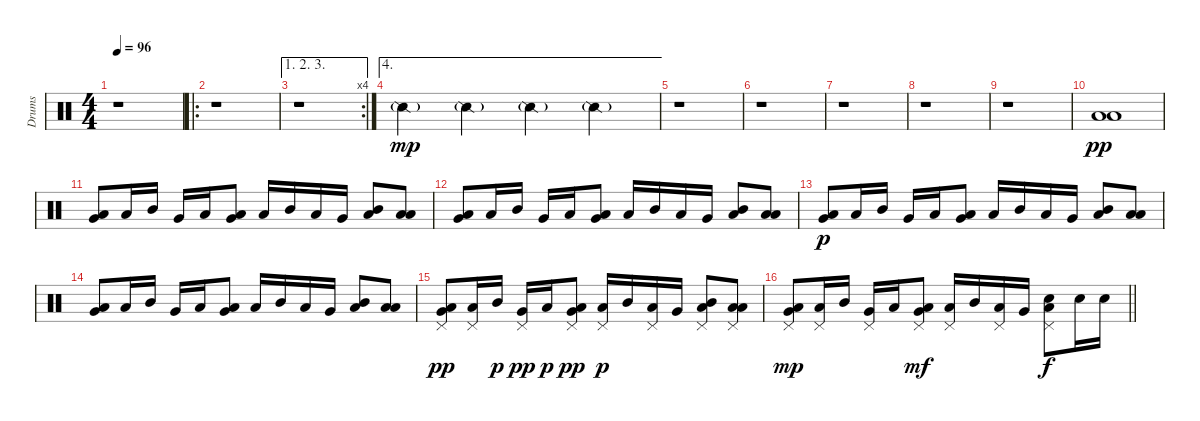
\track ("Drums" "Drums") {instrument percussion}
\staff {score}
\articulation defaults
\ts (4 4)
\tempo 96
\clef neutral
\ks c
r.1{dy mp} |
\ro
r.1 |
\ae (1 2 3)
\rc 4
r.1 |
\ae 4 "Snare (side stick) 2"{g}.4 "Snare (side stick) 2"{g}.4 "Snare (side stick) 2"{g}.4 "Snare (side stick) 2"{g}.4
|
r.1 |
r.1 |
r.1 |
r.1 |
r.1 |
("Low Tom (hit)" "Low Floor Tom (hit)").1{dy pp} |
("Low Tom (hit)" "Very Low Tom (hit)").8 "Low Floor Tom (hit)".16 "Mid Tom (hit)".16 "Very Low Tom (hit)".16 "Low Floor Tom (hit)".16 ("Very Low Tom (hit)" "Low Floor Tom (hit)").8 "Low Floor Tom (hit)".16 "Mid Tom (hit)".16 "Low Tom (hit)".16 "Very Low Tom (hit)".16 ("Mid Tom (hit)" "Low Floor Tom (hit)").8 ("Low Floor Tom (hit)" "Low Tom (hit)").8 |
("Low Tom (hit)" "Very Low Tom (hit)").8 "Low Floor Tom (hit)".16 "Mid Tom (hit)".16 "Very Low Tom (hit)".16 "Low Floor Tom (hit)".16 ("Very Low Tom (hit)" "Low Floor Tom (hit)").8 "Low Floor Tom (hit)".16 "Mid Tom (hit)".16 "Low Tom (hit)".16 "Very Low Tom (hit)".16 ("Mid Tom (hit)" "Low Floor Tom (hit)").8 ("Low Floor Tom (hit)" "Low Tom (hit)").8 |
("Low Tom (hit)" "Very Low Tom (hit)").8{dy p} "Low Floor Tom (hit)".16 "Mid Tom (hit)".16 "Very Low Tom (hit)".16 "Low Floor Tom (hit)".16 ("Very Low Tom (hit)" "Low Floor Tom (hit)").8 "Low Floor Tom (hit)".16 "Mid Tom (hit)".16 "Low Tom (hit)".16 "Very Low Tom (hit)".16 ("Mid Tom (hit)" "Low Floor Tom (hit)").8 ("Low Floor Tom (hit)" "Low Tom (hit)").8 |
("Low Tom (hit)" "Very Low Tom (hit)").8 "Low Floor Tom (hit)".16 "Mid Tom (hit)".16 "Very Low Tom (hit)".16 "Low Floor Tom (hit)".16 ("Very Low Tom (hit)" "Low Floor Tom (hit)").8 "Low Floor Tom (hit)".16 "Mid Tom (hit)".16 "Low Tom (hit)".16 "Very Low Tom (hit)".16 ("Mid Tom (hit)" "Low Floor Tom (hit)").8 ("Low Floor Tom (hit)" "Low Tom (hit)").8 |
("Low Tom (hit)" "Very Low Tom (hit)" "Pedal Hi-Hat (hit)").8{dy pp} ("Low Floor Tom (hit)" "Pedal Hi-Hat (hit)").16 "Mid Tom (hit)".16{dy p} ("Very Low Tom (hit)" "Pedal Hi-Hat (hit)").16{dy pp} "Low Floor Tom (hit)".16{dy p} ("Very Low Tom (hit)" "Low Floor Tom (hit)" "Pedal Hi-Hat (hit)").8{dy pp} ("Low Floor Tom (hit)" "Pedal Hi-Hat (hit)").16{dy p} "Mid Tom (hit)".16 ("Low Tom (hit)" "Pedal Hi-Hat (hit)").16 "Very Low Tom (hit)".16 ("Mid Tom (hit)" "Low Floor Tom (hit)" "Pedal Hi-Hat (hit)").8 ("Low Floor Tom (hit)" "Low Tom (hit)" "Pedal Hi-Hat (hit)").8 |
\barLineRight lightlight
("Low Tom (hit)" "Very Low Tom (hit)" "Pedal Hi-Hat (hit)").8{dy mp} ("Low Floor Tom (hit)" "Pedal Hi-Hat (hit)").16 "Mid Tom (hit)".16 ("Very Low Tom (hit)" "Pedal Hi-Hat (hit)").16 "Low Floor Tom (hit)".16 ("Very Low Tom (hit)" "Low Floor Tom (hit)" "Pedal Hi-Hat (hit)").8{dy mf} ("Low Floor Tom (hit)" "Pedal Hi-Hat (hit)").16 "Mid Tom (hit)".16 ("Low Tom (hit)" "Pedal Hi-Hat (hit)").16 "Very Low Tom (hit)".16 ("Electric Snare (hit)" "Low Tom (hit)" "Pedal Hi-Hat (hit)").8{dy f} "Electric Snare (hit)".16 "Electric Snare (hit)".16
